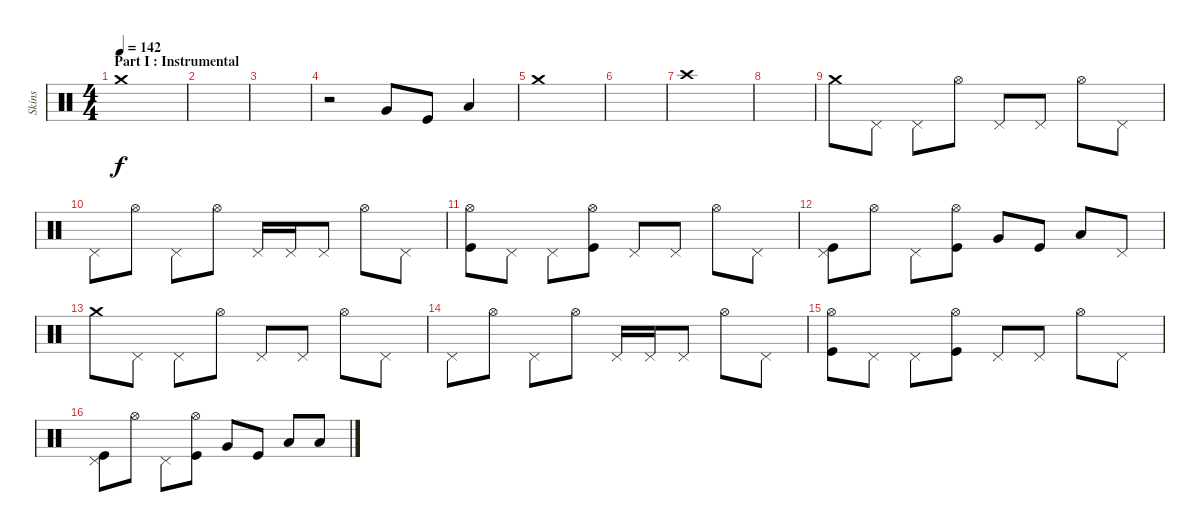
\track ("Skins" "Skins") {instrument percussion}
\staff {score}
\articulation defaults
\ts (4 4)
\section ("" "Part I : Instrumental")
\tempo 142
\clef neutral
\ks c "Crash medium (hit)".1{dy f}
|
|
|
r.2 "Very Low Tom (hit)".8 "Kick (hit)".8 "Low Tom (hit)".4 |
"Crash medium (hit)".1 |
|
"Crash high (hit)".1 |
|
"Crash medium (hit)".8 "Pedal Hi-Hat (hit)".8 "Pedal Hi-Hat (hit)".8 "Hi-Hat (open)".8 "Pedal Hi-Hat (hit)".8 "Pedal Hi-Hat (hit)".8 "Hi-Hat (open)".8 "Pedal Hi-Hat (hit)".8 |
"Pedal Hi-Hat (hit)".8 "Hi-Hat (open)".8 "Pedal Hi-Hat (hit)".8 "Hi-Hat (open)".8 "Pedal Hi-Hat (hit)".16 "Pedal Hi-Hat (hit)".16 "Pedal Hi-Hat (hit)".8 "Hi-Hat (open)".8 "Pedal Hi-Hat (hit)".8 |
("Hi-Hat (open)" "Kick (hit)").8 "Pedal Hi-Hat (hit)".8 "Pedal Hi-Hat (hit)".8 ("Hi-Hat (open)" "Kick (hit)").8 "Pedal Hi-Hat (hit)".8 "Pedal Hi-Hat (hit)".8 "Hi-Hat (open)".8 "Pedal Hi-Hat (hit)".8 |
("Pedal Hi-Hat (hit)" "Kick (hit)").8 "Hi-Hat (open)".8 "Pedal Hi-Hat (hit)".8 ("Hi-Hat (open)" "Kick (hit)").8 "Very Low Tom (hit)".8 "Kick (hit)".8 "Low Tom (hit)".8 "Pedal Hi-Hat (hit)".8 |
"Crash medium (hit)".8 "Pedal Hi-Hat (hit)".8 "Pedal Hi-Hat (hit)".8 "Hi-Hat (open)".8 "Pedal Hi-Hat (hit)".8 "Pedal Hi-Hat (hit)".8 "Hi-Hat (open)".8 "Pedal Hi-Hat (hit)".8 |
"Pedal Hi-Hat (hit)".8 "Hi-Hat (open)".8 "Pedal Hi-Hat (hit)".8 "Hi-Hat (open)".8 "Pedal Hi-Hat (hit)".16 "Pedal Hi-Hat (hit)".16 "Pedal Hi-Hat (hit)".8 "Hi-Hat (open)".8 "Pedal Hi-Hat (hit)".8 |
("Hi-Hat (open)" "Kick (hit)").8 "Pedal Hi-Hat (hit)".8 "Pedal Hi-Hat (hit)".8 ("Hi-Hat (open)" "Kick (hit)").8 "Pedal Hi-Hat (hit)".8 "Pedal Hi-Hat (hit)".8 "Hi-Hat (open)".8 "Pedal Hi-Hat (hit)".8 |
("Pedal Hi-Hat (hit)" "Kick (hit)").8 "Hi-Hat (open)".8 "Pedal Hi-Hat (hit)".8 ("Hi-Hat (open)" "Kick (hit)").8 "Very Low Tom (hit)".8 "Kick (hit)".8 "Low Tom (hit)".8 "Low Floor Tom (hit)".8
